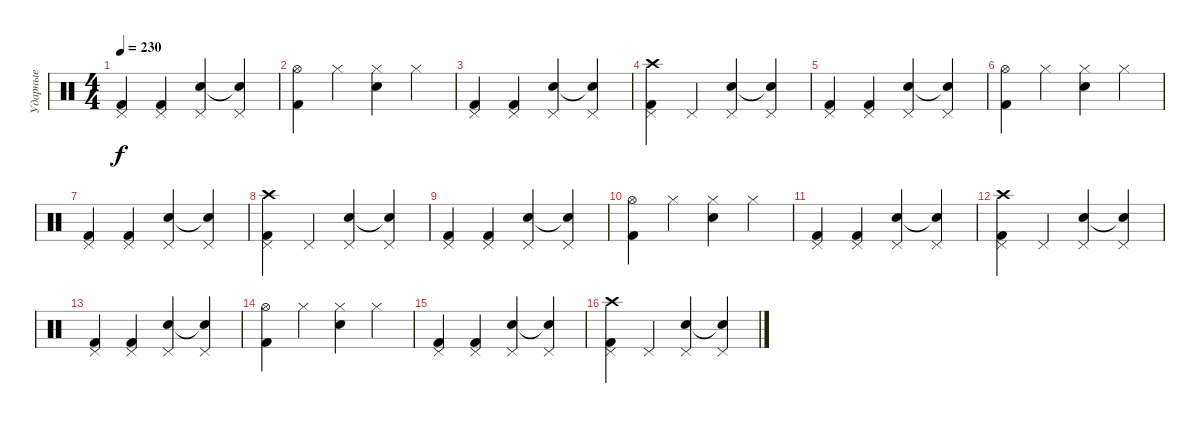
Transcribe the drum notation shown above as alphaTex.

\track ("Ударные" "Ударные") {instrument percussion}
\staff {score}
\articulation defaults
\ts (4 4)
\tempo 230
\clef neutral
\ks c
("Pedal Hi-Hat (hit)" "Kick (hit) 2").4{dy f} ("Pedal Hi-Hat (hit)" "Kick (hit) 2").4 ("Pedal Hi-Hat (hit)" "Electric Snare (hit)").4 ("Pedal Hi-Hat (hit)" "Electric Snare (hit)"{t}).4 |
("Hi-Hat (open)" "Kick (hit) 2").4 "Hi-Hat (closed)".4 ("Hi-Hat (closed)" "Electric Snare (hit)").4 "Hi-Hat (closed)".4 |
("Pedal Hi-Hat (hit)" "Kick (hit) 2").4 ("Pedal Hi-Hat (hit)" "Kick (hit) 2").4 ("Pedal Hi-Hat (hit)" "Electric Snare (hit)").4 ("Pedal Hi-Hat (hit)" "Electric Snare (hit)"{t}).4 |
("Pedal Hi-Hat (hit)" "Crash high (hit)" "Kick (hit) 2").4 "Pedal Hi-Hat (hit)".4 ("Pedal Hi-Hat (hit)" "Electric Snare (hit)").4 ("Pedal Hi-Hat (hit)" "Electric Snare (hit)"{t}).4 |
("Pedal Hi-Hat (hit)" "Kick (hit) 2").4 ("Pedal Hi-Hat (hit)" "Kick (hit) 2").4 ("Pedal Hi-Hat (hit)" "Electric Snare (hit)").4 ("Pedal Hi-Hat (hit)" "Electric Snare (hit)"{t}).4 |
("Hi-Hat (open)" "Kick (hit) 2").4 "Hi-Hat (closed)".4 ("Hi-Hat (closed)" "Electric Snare (hit)").4 "Hi-Hat (closed)".4 |
("Pedal Hi-Hat (hit)" "Kick (hit) 2").4 ("Pedal Hi-Hat (hit)" "Kick (hit) 2").4 ("Pedal Hi-Hat (hit)" "Electric Snare (hit)").4 ("Pedal Hi-Hat (hit)" "Electric Snare (hit)"{t}).4 |
("Pedal Hi-Hat (hit)" "Crash high (hit)" "Kick (hit) 2").4 "Pedal Hi-Hat (hit)".4 ("Pedal Hi-Hat (hit)" "Electric Snare (hit)").4 ("Pedal Hi-Hat (hit)" "Electric Snare (hit)"{t}).4 |
("Pedal Hi-Hat (hit)" "Kick (hit) 2").4 ("Pedal Hi-Hat (hit)" "Kick (hit) 2").4 ("Pedal Hi-Hat (hit)" "Electric Snare (hit)").4 ("Pedal Hi-Hat (hit)" "Electric Snare (hit)"{t}).4 |
("Hi-Hat (open)" "Kick (hit) 2").4 "Hi-Hat (closed)".4 ("Hi-Hat (closed)" "Electric Snare (hit)").4 "Hi-Hat (closed)".4 |
("Pedal Hi-Hat (hit)" "Kick (hit) 2").4 ("Pedal Hi-Hat (hit)" "Kick (hit) 2").4 ("Pedal Hi-Hat (hit)" "Electric Snare (hit)").4 ("Pedal Hi-Hat (hit)" "Electric Snare (hit)"{t}).4 |
("Pedal Hi-Hat (hit)" "Crash high (hit)" "Kick (hit) 2").4 "Pedal Hi-Hat (hit)".4 ("Pedal Hi-Hat (hit)" "Electric Snare (hit)").4 ("Pedal Hi-Hat (hit)" "Electric Snare (hit)"{t}).4 |
("Pedal Hi-Hat (hit)" "Kick (hit) 2").4 ("Pedal Hi-Hat (hit)" "Kick (hit) 2").4 ("Pedal Hi-Hat (hit)" "Electric Snare (hit)").4 ("Pedal Hi-Hat (hit)" "Electric Snare (hit)"{t}).4 |
("Hi-Hat (open)" "Kick (hit) 2").4 "Hi-Hat (closed)".4 ("Hi-Hat (closed)" "Electric Snare (hit)").4 "Hi-Hat (closed)".4 |
("Pedal Hi-Hat (hit)" "Kick (hit) 2").4 ("Pedal Hi-Hat (hit)" "Kick (hit) 2").4 ("Pedal Hi-Hat (hit)" "Electric Snare (hit)").4 ("Pedal Hi-Hat (hit)" "Electric Snare (hit)"{t}).4 |
("Pedal Hi-Hat (hit)" "Crash high (hit)" "Kick (hit) 2").4 "Pedal Hi-Hat (hit)".4 ("Pedal Hi-Hat (hit)" "Electric Snare (hit)").4 ("Pedal Hi-Hat (hit)" "Electric Snare (hit)"{t}).4
